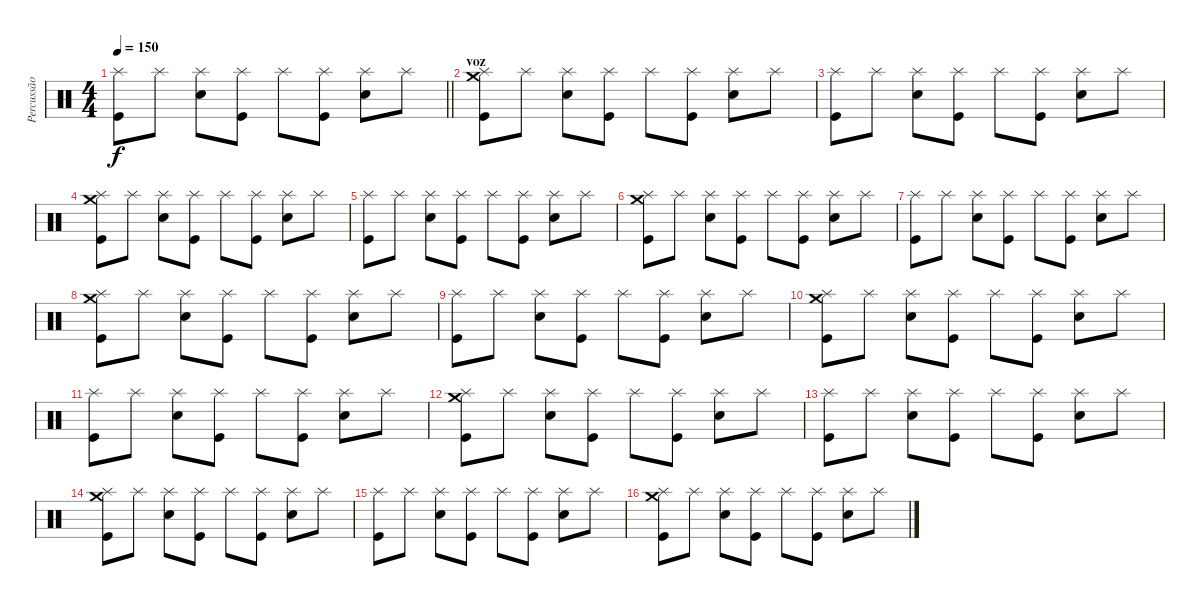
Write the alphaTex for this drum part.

\track ("Percussão" "Percussão") {instrument percussion}
\staff {score}
\articulation defaults
\ts (4 4)
\tempo 150
\clef neutral
\barLineRight lightlight
\ks c
("Splash (hit)" "Kick (hit)").8{dy f} "Splash (hit)".8 ("Splash (hit)" "Electric Snare (hit)").8 ("Splash (hit)" "Kick (hit)").8 "Splash (hit)".8 ("Splash (hit)" "Kick (hit)").8 ("Splash (hit)" "Electric Snare (hit)").8 "Splash (hit)".8 |
\section ("" "voz")
("Crash medium (hit)" "Splash (hit)" "Kick (hit)").8 "Splash (hit)".8 ("Splash (hit)" "Electric Snare (hit)").8 ("Splash (hit)" "Kick (hit)").8 "Splash (hit)".8 ("Splash (hit)" "Kick (hit)").8 ("Splash (hit)" "Electric Snare (hit)").8 "Splash (hit)".8 |
("Splash (hit)" "Kick (hit)").8 "Splash (hit)".8 ("Splash (hit)" "Electric Snare (hit)").8 ("Splash (hit)" "Kick (hit)").8 "Splash (hit)".8 ("Splash (hit)" "Kick (hit)").8 ("Splash (hit)" "Electric Snare (hit)").8 "Splash (hit)".8 |
("Crash medium (hit)" "Splash (hit)" "Kick (hit)").8 "Splash (hit)".8 ("Splash (hit)" "Electric Snare (hit)").8 ("Splash (hit)" "Kick (hit)").8 "Splash (hit)".8 ("Splash (hit)" "Kick (hit)").8 ("Splash (hit)" "Electric Snare (hit)").8 "Splash (hit)".8 |
("Splash (hit)" "Kick (hit)").8 "Splash (hit)".8 ("Splash (hit)" "Electric Snare (hit)").8 ("Splash (hit)" "Kick (hit)").8 "Splash (hit)".8 ("Splash (hit)" "Kick (hit)").8 ("Splash (hit)" "Electric Snare (hit)").8 "Splash (hit)".8 |
("Crash medium (hit)" "Splash (hit)" "Kick (hit)").8 "Splash (hit)".8 ("Splash (hit)" "Electric Snare (hit)").8 ("Splash (hit)" "Kick (hit)").8 "Splash (hit)".8 ("Splash (hit)" "Kick (hit)").8 ("Splash (hit)" "Electric Snare (hit)").8 "Splash (hit)".8 |
("Splash (hit)" "Kick (hit)").8 "Splash (hit)".8 ("Splash (hit)" "Electric Snare (hit)").8 ("Splash (hit)" "Kick (hit)").8 "Splash (hit)".8 ("Splash (hit)" "Kick (hit)").8 ("Splash (hit)" "Electric Snare (hit)").8 "Splash (hit)".8 |
("Crash medium (hit)" "Splash (hit)" "Kick (hit)").8 "Splash (hit)".8 ("Splash (hit)" "Electric Snare (hit)").8 ("Splash (hit)" "Kick (hit)").8 "Splash (hit)".8 ("Splash (hit)" "Kick (hit)").8 ("Splash (hit)" "Electric Snare (hit)").8 "Splash (hit)".8 |
("Splash (hit)" "Kick (hit)").8 "Splash (hit)".8 ("Splash (hit)" "Electric Snare (hit)").8 ("Splash (hit)" "Kick (hit)").8 "Splash (hit)".8 ("Splash (hit)" "Kick (hit)").8 ("Splash (hit)" "Electric Snare (hit)").8 "Splash (hit)".8 |
("Crash medium (hit)" "Splash (hit)" "Kick (hit)").8 "Splash (hit)".8 ("Splash (hit)" "Electric Snare (hit)").8 ("Splash (hit)" "Kick (hit)").8 "Splash (hit)".8 ("Splash (hit)" "Kick (hit)").8 ("Splash (hit)" "Electric Snare (hit)").8 "Splash (hit)".8 |
("Splash (hit)" "Kick (hit)").8 "Splash (hit)".8 ("Splash (hit)" "Electric Snare (hit)").8 ("Splash (hit)" "Kick (hit)").8 "Splash (hit)".8 ("Splash (hit)" "Kick (hit)").8 ("Splash (hit)" "Electric Snare (hit)").8 "Splash (hit)".8 |
("Crash medium (hit)" "Splash (hit)" "Kick (hit)").8 "Splash (hit)".8 ("Splash (hit)" "Electric Snare (hit)").8 ("Splash (hit)" "Kick (hit)").8 "Splash (hit)".8 ("Splash (hit)" "Kick (hit)").8 ("Splash (hit)" "Electric Snare (hit)").8 "Splash (hit)".8 |
("Splash (hit)" "Kick (hit)").8 "Splash (hit)".8 ("Splash (hit)" "Electric Snare (hit)").8 ("Splash (hit)" "Kick (hit)").8 "Splash (hit)".8 ("Splash (hit)" "Kick (hit)").8 ("Splash (hit)" "Electric Snare (hit)").8 "Splash (hit)".8 |
("Crash medium (hit)" "Splash (hit)" "Kick (hit)").8 "Splash (hit)".8 ("Splash (hit)" "Electric Snare (hit)").8 ("Splash (hit)" "Kick (hit)").8 "Splash (hit)".8 ("Splash (hit)" "Kick (hit)").8 ("Splash (hit)" "Electric Snare (hit)").8 "Splash (hit)".8 |
("Splash (hit)" "Kick (hit)").8 "Splash (hit)".8 ("Splash (hit)" "Electric Snare (hit)").8 ("Splash (hit)" "Kick (hit)").8 "Splash (hit)".8 ("Splash (hit)" "Kick (hit)").8 ("Splash (hit)" "Electric Snare (hit)").8 "Splash (hit)".8 |
("Crash medium (hit)" "Splash (hit)" "Kick (hit)").8 "Splash (hit)".8 ("Splash (hit)" "Electric Snare (hit)").8 ("Splash (hit)" "Kick (hit)").8 "Splash (hit)".8 ("Splash (hit)" "Kick (hit)").8 ("Splash (hit)" "Electric Snare (hit)").8 "Splash (hit)".8
